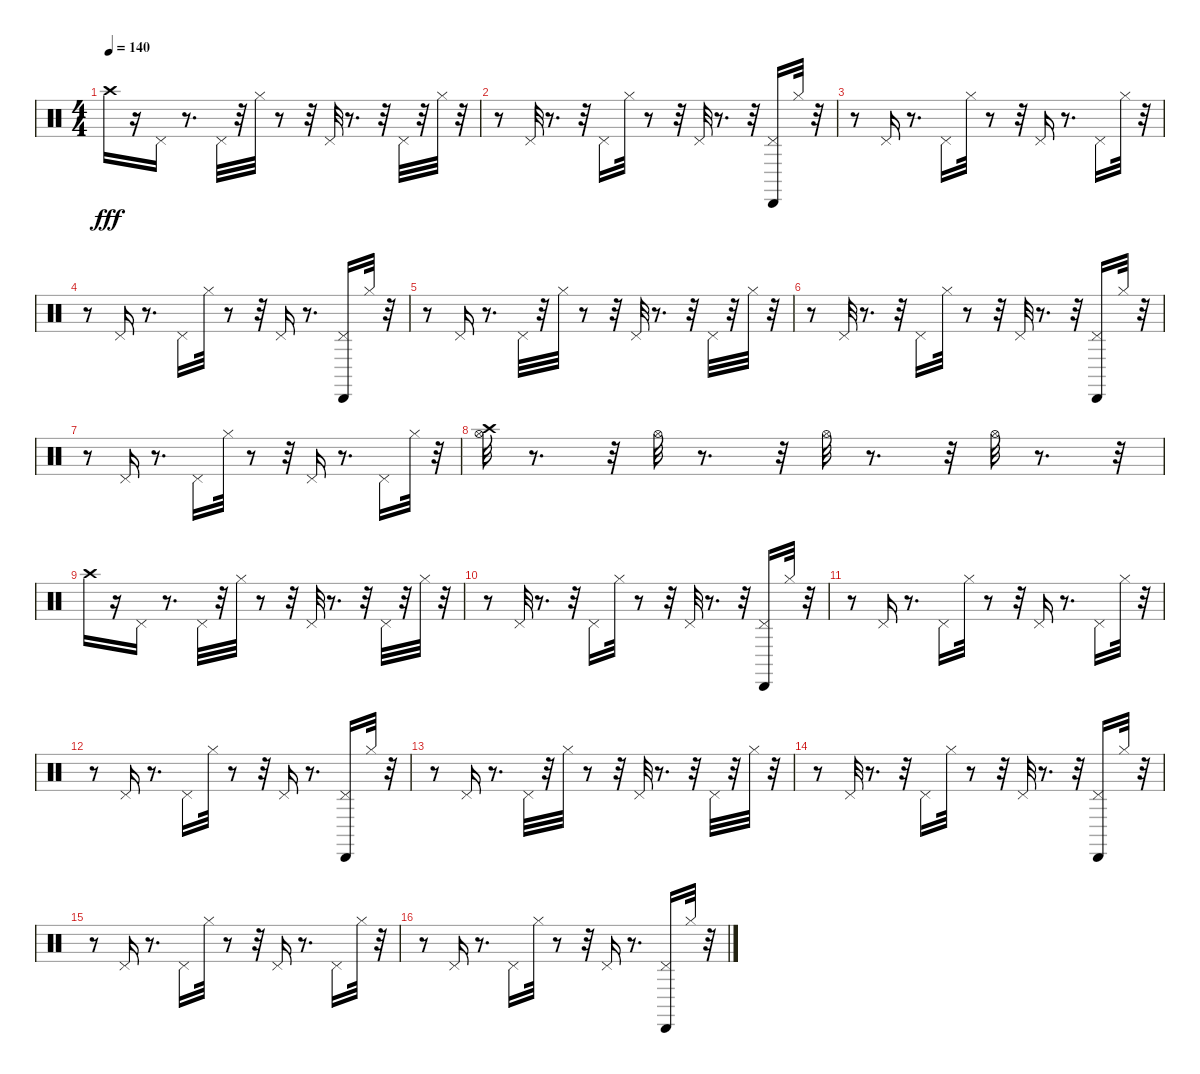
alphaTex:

\track "" {instrument percussion}
\staff {score}
\articulation defaults
\ts (4 4)
\tempo 140
\clef neutral
\ks c "Crash high (hit)".16{dy fff}
r.16 "Pedal Hi-Hat (hit)".16 r.8{d} "Pedal Hi-Hat (hit)".32 r.32 "Hi-Hat (closed)".32 r.8 r.32 "Pedal Hi-Hat (hit)".32 r.8{d} r.32 "Pedal Hi-Hat (hit)".32 r.32 "Hi-Hat (closed)".32 r.32 |
r.8 "Pedal Hi-Hat (hit)".32 r.8{d} r.32 "Pedal Hi-Hat (hit)".16 "Hi-Hat (closed)".32 r.8 r.32 "Pedal Hi-Hat (hit)".32 r.8{d} r.32 ("Cabasa (hit)" "Pedal Hi-Hat (hit)").16 "Hi-Hat (closed)".32 r.32 |
r.8 "Pedal Hi-Hat (hit)".16 r.8{d} "Pedal Hi-Hat (hit)".16 "Hi-Hat (closed)".32 r.8 r.32 "Pedal Hi-Hat (hit)".16 r.8{d} "Pedal Hi-Hat (hit)".16 "Hi-Hat (closed)".32 r.32 |
r.8 "Pedal Hi-Hat (hit)".16 r.8{d} "Pedal Hi-Hat (hit)".16 "Hi-Hat (closed)".32 r.8 r.32 "Pedal Hi-Hat (hit)".16 r.8{d} ("Cabasa (hit)" "Pedal Hi-Hat (hit)").16 "Hi-Hat (closed)".32 r.32 |
r.8 "Pedal Hi-Hat (hit)".16 r.8{d} "Pedal Hi-Hat (hit)".32 r.32 "Hi-Hat (closed)".32 r.8 r.32 "Pedal Hi-Hat (hit)".32 r.8{d} r.32 "Pedal Hi-Hat (hit)".32 r.32 "Hi-Hat (closed)".32 r.32 |
r.8 "Pedal Hi-Hat (hit)".32 r.8{d} r.32 "Pedal Hi-Hat (hit)".16 "Hi-Hat (closed)".32 r.8 r.32 "Pedal Hi-Hat (hit)".32 r.8{d} r.32 ("Cabasa (hit)" "Pedal Hi-Hat (hit)").16 "Hi-Hat (closed)".32 r.32 |
r.8 "Pedal Hi-Hat (hit)".16 r.8{d} "Pedal Hi-Hat (hit)".16 "Hi-Hat (closed)".32 r.8 r.32 "Pedal Hi-Hat (hit)".16 r.8{d} "Pedal Hi-Hat (hit)".16 "Hi-Hat (closed)".32 r.32 |
("Crash high (hit)" "Hi-Hat (open)").32 r.8{d} r.32 "Hi-Hat (open)".32 r.8{d} r.32 "Hi-Hat (open)".32 r.8{d} r.32 "Hi-Hat (open)".32 r.8{d} r.32 |
"Crash high (hit)".16 r.16 "Pedal Hi-Hat (hit)".16 r.8{d} "Pedal Hi-Hat (hit)".32 r.32 "Hi-Hat (closed)".32 r.8 r.32 "Pedal Hi-Hat (hit)".32 r.8{d} r.32 "Pedal Hi-Hat (hit)".32 r.32 "Hi-Hat (closed)".32 r.32 |
r.8 "Pedal Hi-Hat (hit)".32 r.8{d} r.32 "Pedal Hi-Hat (hit)".16 "Hi-Hat (closed)".32 r.8 r.32 "Pedal Hi-Hat (hit)".32 r.8{d} r.32 ("Cabasa (hit)" "Pedal Hi-Hat (hit)").16 "Hi-Hat (closed)".32 r.32 |
r.8 "Pedal Hi-Hat (hit)".16 r.8{d} "Pedal Hi-Hat (hit)".16 "Hi-Hat (closed)".32 r.8 r.32 "Pedal Hi-Hat (hit)".16 r.8{d} "Pedal Hi-Hat (hit)".16 "Hi-Hat (closed)".32 r.32 |
r.8 "Pedal Hi-Hat (hit)".16 r.8{d} "Pedal Hi-Hat (hit)".16 "Hi-Hat (closed)".32 r.8 r.32 "Pedal Hi-Hat (hit)".16 r.8{d} ("Cabasa (hit)" "Pedal Hi-Hat (hit)").16 "Hi-Hat (closed)".32 r.32 |
r.8 "Pedal Hi-Hat (hit)".16 r.8{d} "Pedal Hi-Hat (hit)".32 r.32 "Hi-Hat (closed)".32 r.8 r.32 "Pedal Hi-Hat (hit)".32 r.8{d} r.32 "Pedal Hi-Hat (hit)".32 r.32 "Hi-Hat (closed)".32 r.32 |
r.8 "Pedal Hi-Hat (hit)".32 r.8{d} r.32 "Pedal Hi-Hat (hit)".16 "Hi-Hat (closed)".32 r.8 r.32 "Pedal Hi-Hat (hit)".32 r.8{d} r.32 ("Cabasa (hit)" "Pedal Hi-Hat (hit)").16 "Hi-Hat (closed)".32 r.32 |
r.8 "Pedal Hi-Hat (hit)".16 r.8{d} "Pedal Hi-Hat (hit)".16 "Hi-Hat (closed)".32 r.8 r.32 "Pedal Hi-Hat (hit)".16 r.8{d} "Pedal Hi-Hat (hit)".16 "Hi-Hat (closed)".32 r.32 |
r.8 "Pedal Hi-Hat (hit)".16 r.8{d} "Pedal Hi-Hat (hit)".16 "Hi-Hat (closed)".32 r.8 r.32 "Pedal Hi-Hat (hit)".16 r.8{d} ("Cabasa (hit)" "Pedal Hi-Hat (hit)").16 "Hi-Hat (closed)".32 r.32
